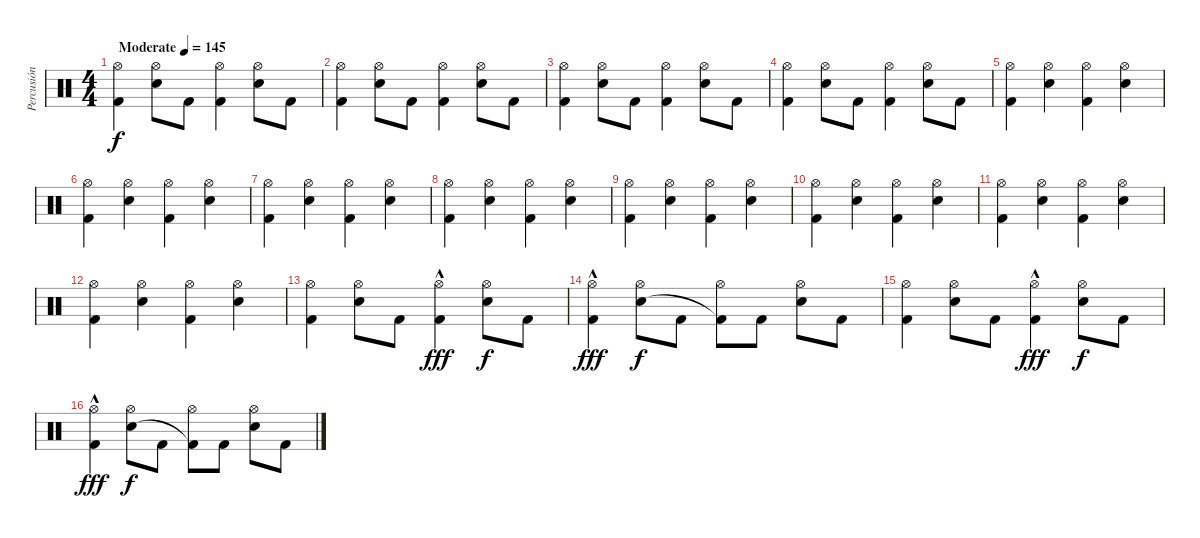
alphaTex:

\track ("Percusión" "Percusión") {instrument percussion}
\staff {score}
\articulation defaults
\ts (4 4)
\tempo (145 "Moderate")
\clef neutral
\ks c
("Hi-Hat (open)" "Kick (hit) 2").4{dy f} ("Hi-Hat (open)" "Snare (hit) 2").8 "Kick (hit) 2".8 ("Hi-Hat (open)" "Kick (hit) 2").4 ("Hi-Hat (open)" "Snare (hit) 2").8 "Kick (hit) 2".8 |
("Hi-Hat (open)" "Kick (hit) 2").4 ("Hi-Hat (open)" "Snare (hit) 2").8 "Kick (hit) 2".8 ("Hi-Hat (open)" "Kick (hit) 2").4 ("Hi-Hat (open)" "Snare (hit) 2").8 "Kick (hit) 2".8 |
("Hi-Hat (open)" "Kick (hit) 2").4 ("Hi-Hat (open)" "Snare (hit) 2").8 "Kick (hit) 2".8 ("Hi-Hat (open)" "Kick (hit) 2").4 ("Hi-Hat (open)" "Snare (hit) 2").8 "Kick (hit) 2".8 |
("Hi-Hat (open)" "Kick (hit) 2").4 ("Hi-Hat (open)" "Snare (hit) 2").8 "Kick (hit) 2".8 ("Hi-Hat (open)" "Kick (hit) 2").4 ("Hi-Hat (open)" "Snare (hit) 2").8 "Kick (hit) 2".8 |
("Hi-Hat (open)" "Kick (hit) 2").4 ("Hi-Hat (open)" "Snare (hit) 2").4 ("Hi-Hat (open)" "Kick (hit) 2").4 ("Hi-Hat (open)" "Snare (hit) 2").4 |
("Hi-Hat (open)" "Kick (hit) 2").4 ("Hi-Hat (open)" "Snare (hit) 2").4 ("Hi-Hat (open)" "Kick (hit) 2").4 ("Hi-Hat (open)" "Snare (hit) 2").4 |
("Hi-Hat (open)" "Kick (hit) 2").4 ("Hi-Hat (open)" "Snare (hit) 2").4 ("Hi-Hat (open)" "Kick (hit) 2").4 ("Hi-Hat (open)" "Snare (hit) 2").4 |
("Hi-Hat (open)" "Kick (hit) 2").4 ("Hi-Hat (open)" "Snare (hit) 2").4 ("Hi-Hat (open)" "Kick (hit) 2").4 ("Hi-Hat (open)" "Snare (hit) 2").4 |
("Hi-Hat (open)" "Kick (hit) 2").4 ("Hi-Hat (open)" "Snare (hit) 2").4 ("Hi-Hat (open)" "Kick (hit) 2").4 ("Hi-Hat (open)" "Snare (hit) 2").4 |
("Hi-Hat (open)" "Kick (hit) 2").4 ("Hi-Hat (open)" "Snare (hit) 2").4 ("Hi-Hat (open)" "Kick (hit) 2").4 ("Hi-Hat (open)" "Snare (hit) 2").4 |
("Hi-Hat (open)" "Kick (hit) 2").4 ("Hi-Hat (open)" "Snare (hit) 2").4 ("Hi-Hat (open)" "Kick (hit) 2").4 ("Hi-Hat (open)" "Snare (hit) 2").4 |
("Hi-Hat (open)" "Kick (hit) 2").4 ("Hi-Hat (open)" "Snare (hit) 2").4 ("Hi-Hat (open)" "Kick (hit) 2").4 ("Hi-Hat (open)" "Snare (hit) 2").4 |
("Hi-Hat (open)" "Kick (hit) 2").4 ("Hi-Hat (open)" "Snare (hit) 2").8 "Kick (hit) 2".8 ("Hi-Hat (open)" "Kick (hit) 2"{hac}).4{dy fff} ("Hi-Hat (open)" "Snare (hit) 2").8{dy f} "Kick (hit) 2".8 |
("Hi-Hat (open)" "Kick (hit) 2"{hac}).4{dy fff} ("Hi-Hat (open)" "Snare (hit) 2").8{dy f} "Kick (hit) 2".8 ("Hi-Hat (open)" "Kick (hit) 2"{t}).8 "Kick (hit) 2".8 ("Hi-Hat (open)" "Snare (hit) 2").8 "Kick (hit) 2".8 |
("Hi-Hat (open)" "Kick (hit) 2").4 ("Hi-Hat (open)" "Snare (hit) 2").8 "Kick (hit) 2".8 ("Hi-Hat (open)" "Kick (hit) 2"{hac}).4{dy fff} ("Hi-Hat (open)" "Snare (hit) 2").8{dy f} "Kick (hit) 2".8 |
("Hi-Hat (open)" "Kick (hit) 2"{hac}).4{dy fff} ("Hi-Hat (open)" "Snare (hit) 2").8{dy f} "Kick (hit) 2".8 ("Hi-Hat (open)" "Kick (hit) 2"{t}).8 "Kick (hit) 2".8 ("Hi-Hat (open)" "Snare (hit) 2").8 "Kick (hit) 2".8
